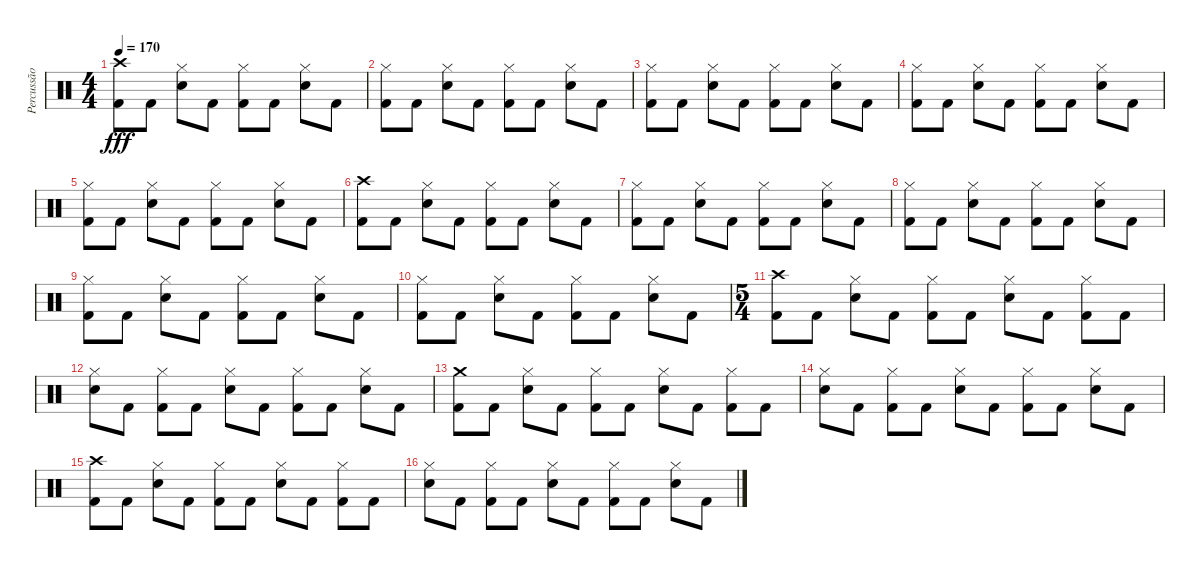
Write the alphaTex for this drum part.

\track ("Percussão" "Percussão") {instrument percussion}
\staff {score}
\articulation defaults
\ts (4 4)
\tempo 170
\clef neutral
\ks c
("Kick (hit) 2" "Crash high (hit)").8{dy fff} "Kick (hit) 2".8 ("Snare (hit) 2" "Hi-Hat (closed)").8 "Kick (hit) 2".8 ("Kick (hit) 2" "Hi-Hat (closed)").8 "Kick (hit) 2".8 ("Snare (hit) 2" "Hi-Hat (closed)").8 "Kick (hit) 2".8 |
("Kick (hit) 2" "Hi-Hat (closed)").8 "Kick (hit) 2".8 ("Snare (hit) 2" "Hi-Hat (closed)").8 "Kick (hit) 2".8 ("Kick (hit) 2" "Hi-Hat (closed)").8 "Kick (hit) 2".8 ("Snare (hit) 2" "Hi-Hat (closed)").8 "Kick (hit) 2".8 |
("Kick (hit) 2" "Hi-Hat (closed)").8 "Kick (hit) 2".8 ("Snare (hit) 2" "Hi-Hat (closed)").8 "Kick (hit) 2".8 ("Kick (hit) 2" "Hi-Hat (closed)").8 "Kick (hit) 2".8 ("Snare (hit) 2" "Hi-Hat (closed)").8 "Kick (hit) 2".8 |
("Kick (hit) 2" "Hi-Hat (closed)").8 "Kick (hit) 2".8 ("Snare (hit) 2" "Hi-Hat (closed)").8 "Kick (hit) 2".8 ("Kick (hit) 2" "Hi-Hat (closed)").8 "Kick (hit) 2".8 ("Snare (hit) 2" "Hi-Hat (closed)").8 "Kick (hit) 2".8 |
("Kick (hit) 2" "Hi-Hat (closed)").8 "Kick (hit) 2".8 ("Snare (hit) 2" "Hi-Hat (closed)").8 "Kick (hit) 2".8 ("Kick (hit) 2" "Hi-Hat (closed)").8 "Kick (hit) 2".8 ("Snare (hit) 2" "Hi-Hat (closed)").8 "Kick (hit) 2".8 |
("Kick (hit) 2" "Crash high (hit)").8 "Kick (hit) 2".8 ("Snare (hit) 2" "Hi-Hat (closed)").8 "Kick (hit) 2".8 ("Kick (hit) 2" "Hi-Hat (closed)").8 "Kick (hit) 2".8 ("Snare (hit) 2" "Hi-Hat (closed)").8 "Kick (hit) 2".8 |
("Kick (hit) 2" "Hi-Hat (closed)").8 "Kick (hit) 2".8 ("Snare (hit) 2" "Hi-Hat (closed)").8 "Kick (hit) 2".8 ("Kick (hit) 2" "Hi-Hat (closed)").8 "Kick (hit) 2".8 ("Snare (hit) 2" "Hi-Hat (closed)").8 "Kick (hit) 2".8 |
("Kick (hit) 2" "Hi-Hat (closed)").8 "Kick (hit) 2".8 ("Snare (hit) 2" "Hi-Hat (closed)").8 "Kick (hit) 2".8 ("Kick (hit) 2" "Hi-Hat (closed)").8 "Kick (hit) 2".8 ("Snare (hit) 2" "Hi-Hat (closed)").8 "Kick (hit) 2".8 |
("Kick (hit) 2" "Hi-Hat (closed)").8 "Kick (hit) 2".8 ("Snare (hit) 2" "Hi-Hat (closed)").8 "Kick (hit) 2".8 ("Kick (hit) 2" "Hi-Hat (closed)").8 "Kick (hit) 2".8 ("Snare (hit) 2" "Hi-Hat (closed)").8 "Kick (hit) 2".8 |
("Kick (hit) 2" "Hi-Hat (closed)").8 "Kick (hit) 2".8 ("Snare (hit) 2" "Hi-Hat (closed)").8 "Kick (hit) 2".8 ("Kick (hit) 2" "Hi-Hat (closed)").8 "Kick (hit) 2".8 ("Snare (hit) 2" "Hi-Hat (closed)").8 "Kick (hit) 2".8 |
\ts (5 4)
("Kick (hit) 2" "Crash high (hit)").8 "Kick (hit) 2".8 ("Snare (hit) 2" "Hi-Hat (closed)").8 "Kick (hit) 2".8 ("Kick (hit) 2" "Hi-Hat (closed)").8 "Kick (hit) 2".8 ("Snare (hit) 2" "Hi-Hat (closed)").8 "Kick (hit) 2".8 ("Kick (hit) 2" "Hi-Hat (closed)").8 "Kick (hit) 2".8 |
("Snare (hit) 2" "Hi-Hat (closed)").8 "Kick (hit) 2".8 ("Kick (hit) 2" "Hi-Hat (closed)").8 "Kick (hit) 2".8 ("Snare (hit) 2" "Hi-Hat (closed)").8 "Kick (hit) 2".8 ("Kick (hit) 2" "Hi-Hat (closed)").8 "Kick (hit) 2".8 ("Snare (hit) 2" "Hi-Hat (closed)").8 "Kick (hit) 2".8 |
("Kick (hit) 2" "Crash medium (hit)").8 "Kick (hit) 2".8 ("Snare (hit) 2" "Hi-Hat (closed)").8 "Kick (hit) 2".8 ("Kick (hit) 2" "Hi-Hat (closed)").8 "Kick (hit) 2".8 ("Snare (hit) 2" "Hi-Hat (closed)").8 "Kick (hit) 2".8 ("Kick (hit) 2" "Hi-Hat (closed)").8 "Kick (hit) 2".8 |
("Snare (hit) 2" "Hi-Hat (closed)").8 "Kick (hit) 2".8 ("Kick (hit) 2" "Hi-Hat (closed)").8 "Kick (hit) 2".8 ("Snare (hit) 2" "Hi-Hat (closed)").8 "Kick (hit) 2".8 ("Kick (hit) 2" "Hi-Hat (closed)").8 "Kick (hit) 2".8 ("Snare (hit) 2" "Hi-Hat (closed)").8 "Kick (hit) 2".8 |
("Kick (hit) 2" "Crash high (hit)").8 "Kick (hit) 2".8 ("Snare (hit) 2" "Hi-Hat (closed)").8 "Kick (hit) 2".8 ("Kick (hit) 2" "Hi-Hat (closed)").8 "Kick (hit) 2".8 ("Snare (hit) 2" "Hi-Hat (closed)").8 "Kick (hit) 2".8 ("Kick (hit) 2" "Hi-Hat (closed)").8 "Kick (hit) 2".8 |
("Snare (hit) 2" "Hi-Hat (closed)").8 "Kick (hit) 2".8 ("Kick (hit) 2" "Hi-Hat (closed)").8 "Kick (hit) 2".8 ("Snare (hit) 2" "Hi-Hat (closed)").8 "Kick (hit) 2".8 ("Kick (hit) 2" "Hi-Hat (closed)").8 "Kick (hit) 2".8 ("Snare (hit) 2" "Hi-Hat (closed)").8 "Kick (hit) 2".8
